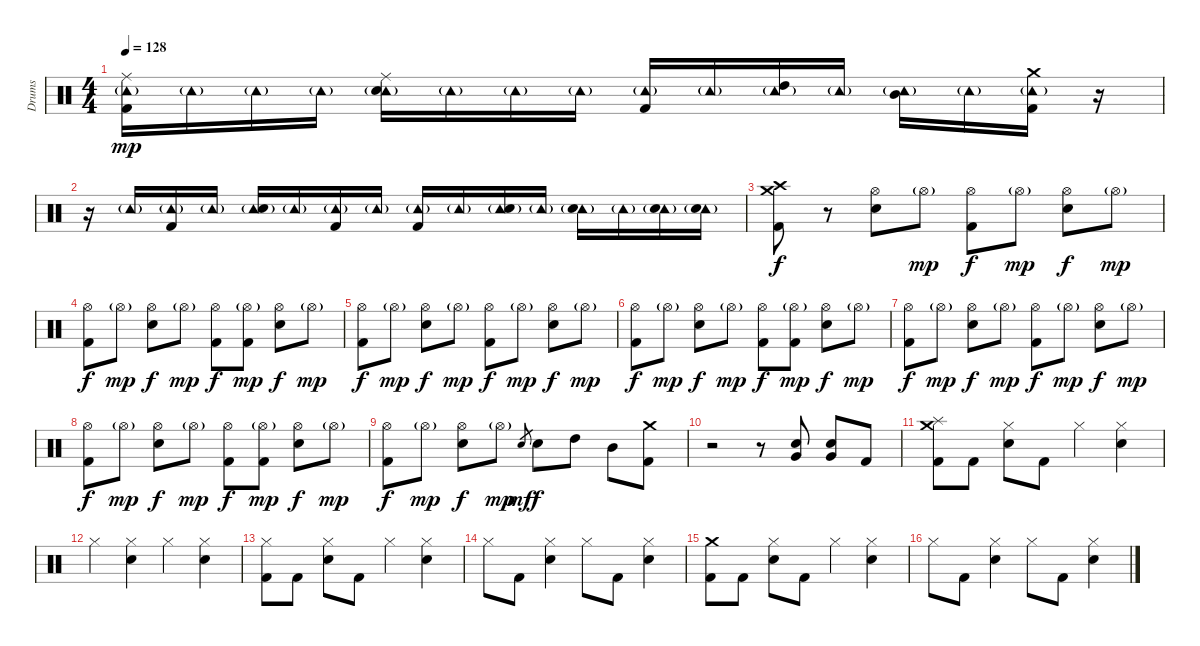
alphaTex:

\track ("Drums" "Drums") {instrument percussion}
\staff {score}
\articulation defaults
\ts (4 4)
\tempo 128
\clef neutral
\ks c
("Ride (middle)" "Tambourine (hit)"{g} "Kick (hit) 2").16{dy mp} "Tambourine (hit)"{g}.16 "Tambourine (hit)"{g}.16 "Tambourine (hit)"{g}.16 ("Ride (middle)" "Tambourine (hit)"{g} "Electric Snare (hit)").16 "Tambourine (hit)"{g}.16 "Tambourine (hit)"{g}.16 "Tambourine (hit)"{g}.16 ("Tambourine (hit)"{g} "Kick (hit) 2").16 "Tambourine (hit)"{g}.16 ("Tambourine (hit)"{g} "High Tom (hit)").16 "Tambourine (hit)"{g}.16 ("Tambourine (hit)"{g} "Mid Tom (hit)").16 "Tambourine (hit)"{g}.16 ("Crash medium (hit)" "Tambourine (hit)"{g} "Kick (hit) 2").16 r.16 |
r.16 "Tambourine (hit)"{g}.16 ("Tambourine (hit)"{g} "Kick (hit) 2").16 "Tambourine (hit)"{g}.16 ("Tambourine (hit)"{g} "Electric Snare (hit)").16 "Tambourine (hit)"{g}.16 ("Tambourine (hit)"{g} "Kick (hit) 2").16 "Tambourine (hit)"{g}.16 ("Tambourine (hit)"{g} "Kick (hit) 2").16 "Tambourine (hit)"{g}.16 ("Tambourine (hit)"{g} "Electric Snare (hit)").16 "Tambourine (hit)"{g}.16 ("Tambourine (hit)"{g} "Electric Snare (hit)").16 "Tambourine (hit)"{g}.16 ("Tambourine (hit)"{g} "Electric Snare (hit)").16 ("Tambourine (hit)"{g} "Electric Snare (hit)").16 |
("Crash high (hit)" "Crash medium (hit)" "Kick (hit) 2").8{dy f} r.8 ("Hi-Hat (open)" "Electric Snare (hit)").8 "Hi-Hat (open)"{g}.8{dy mp} ("Hi-Hat (open)" "Kick (hit) 2").8{dy f} "Hi-Hat (open)"{g}.8{dy mp} ("Hi-Hat (open)" "Electric Snare (hit)").8{dy f} "Hi-Hat (open)"{g}.8{dy mp} |
("Hi-Hat (open)" "Kick (hit) 2").8{dy f} "Hi-Hat (open)"{g}.8{dy mp} ("Hi-Hat (open)" "Electric Snare (hit)").8{dy f} "Hi-Hat (open)"{g}.8{dy mp} ("Hi-Hat (open)" "Kick (hit) 2").8{dy f} ("Hi-Hat (open)"{g} "Kick (hit) 2").8{dy mp} ("Hi-Hat (open)" "Electric Snare (hit)").8{dy f} "Hi-Hat (open)"{g}.8{dy mp} |
("Hi-Hat (open)" "Kick (hit) 2").8{dy f} "Hi-Hat (open)"{g}.8{dy mp} ("Hi-Hat (open)" "Electric Snare (hit)").8{dy f} "Hi-Hat (open)"{g}.8{dy mp} ("Hi-Hat (open)" "Kick (hit) 2").8{dy f} "Hi-Hat (open)"{g}.8{dy mp} ("Hi-Hat (open)" "Electric Snare (hit)").8{dy f} "Hi-Hat (open)"{g}.8{dy mp} |
("Hi-Hat (open)" "Kick (hit) 2").8{dy f} "Hi-Hat (open)"{g}.8{dy mp} ("Hi-Hat (open)" "Electric Snare (hit)").8{dy f} "Hi-Hat (open)"{g}.8{dy mp} ("Hi-Hat (open)" "Kick (hit) 2").8{dy f} ("Hi-Hat (open)"{g} "Kick (hit) 2").8{dy mp} ("Hi-Hat (open)" "Electric Snare (hit)").8{dy f} "Hi-Hat (open)"{g}.8{dy mp} |
("Hi-Hat (open)" "Kick (hit) 2").8{dy f} "Hi-Hat (open)"{g}.8{dy mp} ("Hi-Hat (open)" "Electric Snare (hit)").8{dy f} "Hi-Hat (open)"{g}.8{dy mp} ("Hi-Hat (open)" "Kick (hit) 2").8{dy f} "Hi-Hat (open)"{g}.8{dy mp} ("Hi-Hat (open)" "Electric Snare (hit)").8{dy f} "Hi-Hat (open)"{g}.8{dy mp} |
("Hi-Hat (open)" "Kick (hit) 2").8{dy f} "Hi-Hat (open)"{g}.8{dy mp} ("Hi-Hat (open)" "Electric Snare (hit)").8{dy f} "Hi-Hat (open)"{g}.8{dy mp} ("Hi-Hat (open)" "Kick (hit) 2").8{dy f} ("Hi-Hat (open)"{g} "Kick (hit) 2").8{dy mp} ("Hi-Hat (open)" "Electric Snare (hit)").8{dy f} "Hi-Hat (open)"{g}.8{dy mp} |
("Hi-Hat (open)" "Kick (hit) 2").8{dy f} "Hi-Hat (open)"{g}.8{dy mp} ("Hi-Hat (open)" "Electric Snare (hit)").8{dy f} "Hi-Hat (open)"{g}.8{dy mp} "Electric Snare (hit)".8{gr dy mf} "Electric Snare (hit)".8{dy f} "High Tom (hit)".8 "Mid Tom (hit)".8 ("Crash medium (hit)" "Kick (hit) 2").8 |
r.2 r.8 ("Very Low Tom (hit)" "Electric Snare (hit)").8 ("Very Low Tom (hit)" "Electric Snare (hit)").8 "Kick (hit) 2".8 |
("Splash (hit)" "Crash medium (hit)" "Kick (hit) 2").8 "Kick (hit) 2".8 ("Hi-Hat (closed)" "Electric Snare (hit)").8 "Kick (hit) 2".8 "Hi-Hat (closed)".4 ("Hi-Hat (closed)" "Electric Snare (hit)").4 |
"Hi-Hat (closed)".4 ("Hi-Hat (closed)" "Electric Snare (hit)").4 "Hi-Hat (closed)".4 ("Hi-Hat (closed)" "Electric Snare (hit)").4 |
("Hi-Hat (closed)" "Kick (hit) 2").8 "Kick (hit) 2".8 ("Hi-Hat (closed)" "Electric Snare (hit)").8 "Kick (hit) 2".8 "Hi-Hat (closed)".4 ("Hi-Hat (closed)" "Electric Snare (hit)").4 |
"Hi-Hat (closed)".8 "Kick (hit) 2".8 ("Hi-Hat (closed)" "Electric Snare (hit)").4 "Hi-Hat (closed)".8 "Kick (hit) 2".8 ("Hi-Hat (closed)" "Electric Snare (hit)").4 |
("Crash medium (hit)" "Kick (hit) 2").8 "Kick (hit) 2".8 ("Hi-Hat (closed)" "Electric Snare (hit)").8 "Kick (hit) 2".8 "Hi-Hat (closed)".4 ("Hi-Hat (closed)" "Electric Snare (hit)").4 |
"Hi-Hat (closed)".8 "Kick (hit) 2".8 ("Hi-Hat (closed)" "Electric Snare (hit)").4 "Hi-Hat (closed)".8 "Kick (hit) 2".8 ("Hi-Hat (closed)" "Electric Snare (hit)").4
